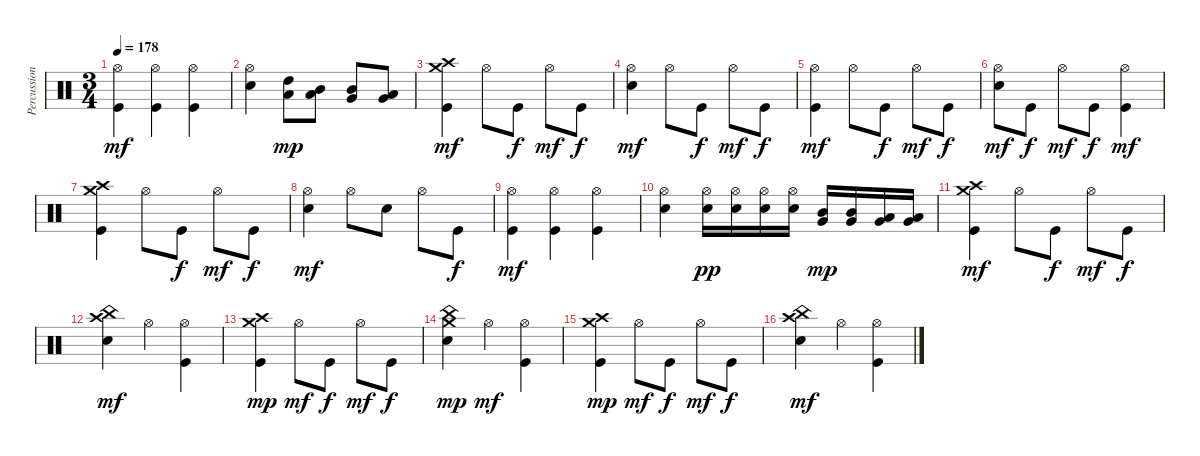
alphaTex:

\track ("Percussions" "Percussion") {instrument percussion}
\staff {score}
\articulation defaults
\ts (3 4)
\tempo 178
\clef neutral
\ks c
("Kick (hit)" "Hi-Hat (open)").4{dy mf} ("Kick (hit)" "Hi-Hat (open)").4 ("Kick (hit)" "Hi-Hat (open)").4 |
("Electric Snare (hit)" "Hi-Hat (open)").4 ("Low Tom (hit)" "High Tom (hit)").8{dy mp} ("Low Tom (hit)" "Mid Tom (hit)").8 ("Very Low Tom (hit)" "Mid Tom (hit)").8 ("Very Low Tom (hit)" "Low Tom (hit)").8 |
("Kick (hit)" "Crash high (hit)" "Crash medium (hit)").4{dy mf} "Hi-Hat (open)".8 "Kick (hit)".8{dy f} "Hi-Hat (open)".8{dy mf} "Kick (hit)".8{dy f} |
("Electric Snare (hit)" "Hi-Hat (open)").4{dy mf} "Hi-Hat (open)".8 "Kick (hit)".8{dy f} "Hi-Hat (open)".8{dy mf} "Kick (hit)".8{dy f} |
("Kick (hit)" "Hi-Hat (open)").4{dy mf} "Hi-Hat (open)".8 "Kick (hit)".8{dy f} "Hi-Hat (open)".8{dy mf} "Kick (hit)".8{dy f} |
("Electric Snare (hit)" "Hi-Hat (open)").8{dy mf} "Kick (hit)".8{dy f} "Hi-Hat (open)".8{dy mf} "Kick (hit)".8{dy f} ("Kick (hit)" "Hi-Hat (open)").4{dy mf} |
("Kick (hit)" "Crash high (hit)" "Crash medium (hit)").4 "Hi-Hat (open)".8 "Kick (hit)".8{dy f} "Hi-Hat (open)".8{dy mf} "Kick (hit)".8{dy f} |
("Electric Snare (hit)" "Hi-Hat (open)").4{dy mf} "Hi-Hat (open)".8 "Electric Snare (hit)".8 "Hi-Hat (open)".8 "Kick (hit)".8{dy f} |
("Kick (hit)" "Hi-Hat (open)").4{dy mf} ("Kick (hit)" "Hi-Hat (open)").4 ("Kick (hit)" "Hi-Hat (open)").4 |
("Electric Snare (hit)" "Hi-Hat (open)").4 ("Electric Snare (hit)" "Hi-Hat (open)").16{dy pp} ("Electric Snare (hit)" "Hi-Hat (open)").16 ("Electric Snare (hit)" "Hi-Hat (open)").16 ("Electric Snare (hit)" "Hi-Hat (open)").16 ("Very Low Tom (hit)" "Mid Tom (hit)").16{dy mp} ("Very Low Tom (hit)" "Mid Tom (hit)").16 ("Very Low Tom (hit)" "Low Tom (hit)").16 ("Very Low Tom (hit)" "Low Tom (hit)").16 |
("Kick (hit)" "Crash high (hit)" "Crash medium (hit)").4{dy mf} "Hi-Hat (open)".8 "Kick (hit)".8{dy f} "Hi-Hat (open)".8{dy mf} "Kick (hit)".8{dy f} |
("Electric Snare (hit)" "China (hit)" "Crash high (hit)").4{dy mf} "Hi-Hat (open)".4 ("Kick (hit)" "Hi-Hat (open)").4 |
("Kick (hit)" "Crash high (hit)" "Crash medium (hit)").4{dy mp} "Hi-Hat (open)".8{dy mf} "Kick (hit)".8{dy f} "Hi-Hat (open)".8{dy mf} "Kick (hit)".8{dy f} |
("Electric Snare (hit)" "China (hit)" "Crash medium (hit)").4{dy mp} "Hi-Hat (open)".4{dy mf} ("Kick (hit)" "Hi-Hat (open)").4 |
("Kick (hit)" "Crash high (hit)" "Crash medium (hit)").4{dy mp} "Hi-Hat (open)".8{dy mf} "Kick (hit)".8{dy f} "Hi-Hat (open)".8{dy mf} "Kick (hit)".8{dy f} |
("Electric Snare (hit)" "China (hit)" "Crash high (hit)").4{dy mf} "Hi-Hat (open)".4 ("Kick (hit)" "Hi-Hat (open)").4
